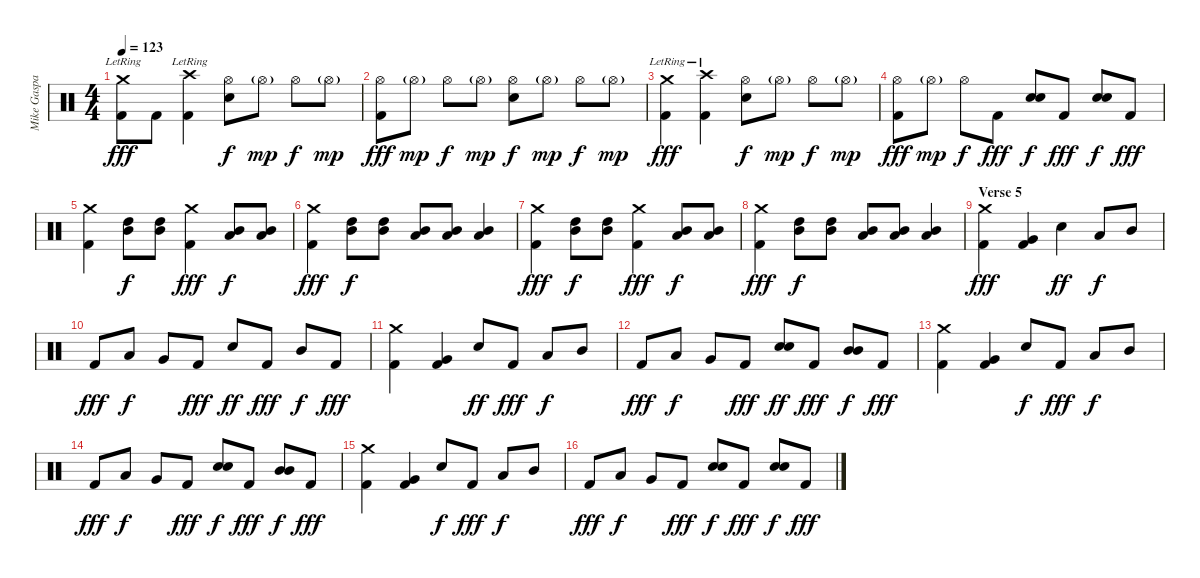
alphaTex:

\track ("Mike Gaspar (Drums)" "Mike Gaspa") {instrument percussion}
\staff {score}
\articulation defaults
\ts (4 4)
\tempo 123
\clef neutral
\ks c
("Crash medium (hit)"{lr} "Kick (hit) 2").8{dy fff} "Kick (hit) 2".8 ("Crash high (hit)"{lr} "Kick (hit) 2").4 ("Hi-Hat (open)" "Snare (hit) 2").8{dy f} "Hi-Hat (open)"{g}.8{dy mp} "Hi-Hat (open)".8{dy f} "Hi-Hat (open)"{g}.8{dy mp} |
("Hi-Hat (open)" "Kick (hit) 2").8{dy fff} "Hi-Hat (open)"{g}.8{dy mp} "Hi-Hat (open)".8{dy f} "Hi-Hat (open)"{g}.8{dy mp} ("Hi-Hat (open)" "Snare (hit) 2").8{dy f} "Hi-Hat (open)"{g}.8{dy mp} "Hi-Hat (open)".8{dy f} "Hi-Hat (open)"{g}.8{dy mp} |
("Crash medium (hit)"{lr} "Kick (hit) 2").4{dy fff} ("Crash high (hit)"{lr} "Kick (hit) 2").4 ("Hi-Hat (open)" "Snare (hit) 2").8{dy f} "Hi-Hat (open)"{g}.8{dy mp} "Hi-Hat (open)".8{dy f} "Hi-Hat (open)"{g}.8{dy mp} |
("Hi-Hat (open)" "Kick (hit) 2").8{dy fff} "Hi-Hat (open)"{g}.8{dy mp} "Hi-Hat (open)".8{dy f} "Kick (hit) 2".8{dy fff} ("Snare (hit) 2" "Snare (hit) 2").8{bd 30 dy f} "Kick (hit) 2".8{dy fff} ("Snare (hit) 2" "Snare (hit) 2").8{bd 30 dy f} "Kick (hit) 2".8{dy fff} |
("Crash medium (hit)" "Kick (hit) 2").4 ("High Tom (hit)" "Mid Tom (hit)").8{dy f} ("High Tom (hit)" "Mid Tom (hit)").8 ("Crash medium (hit)" "Kick (hit) 2").4{dy fff} ("Mid Tom (hit)" "Low Tom (hit)").8{dy f} ("Mid Tom (hit)" "Low Tom (hit)").8 |
("Crash medium (hit)" "Kick (hit) 2").4{dy fff} ("High Tom (hit)" "Mid Tom (hit)").8{dy f} ("High Tom (hit)" "Mid Tom (hit)").8 ("Mid Tom (hit)" "Low Tom (hit)").8 ("Mid Tom (hit)" "Low Tom (hit)").8 ("Mid Tom (hit)" "Low Tom (hit)").4 |
("Crash medium (hit)" "Kick (hit) 2").4{dy fff} ("High Tom (hit)" "Mid Tom (hit)").8{dy f} ("High Tom (hit)" "Mid Tom (hit)").8 ("Crash medium (hit)" "Kick (hit) 2").4{dy fff} ("Mid Tom (hit)" "Low Tom (hit)").8{dy f} ("Mid Tom (hit)" "Low Tom (hit)").8 |
("Crash medium (hit)" "Kick (hit) 2").4{dy fff} ("High Tom (hit)" "Mid Tom (hit)").8{dy f} ("High Tom (hit)" "Mid Tom (hit)").8 ("Mid Tom (hit)" "Low Tom (hit)").8 ("Mid Tom (hit)" "Low Tom (hit)").8 ("Mid Tom (hit)" "Low Tom (hit)").4 |
\section ("" "Verse 5")
("Crash medium (hit)" "Kick (hit) 2").4{dy fff} ("Very Low Tom (hit)" "Kick (hit) 2").4 "Snare (hit) 2".4{dy ff} "Low Tom (hit)".8{dy f} "Mid Tom (hit)".8 |
"Kick (hit) 2".8{dy fff} "Low Tom (hit)".8{dy f} "Very Low Tom (hit)".8 "Kick (hit) 2".8{dy fff} "Snare (hit) 2".8{dy ff} "Kick (hit) 2".8{dy fff} "Mid Tom (hit)".8{dy f} "Kick (hit) 2".8{dy fff} |
("Crash medium (hit)" "Kick (hit) 2").4 ("Very Low Tom (hit)" "Kick (hit) 2").4 "Snare (hit) 2".8{dy ff} "Kick (hit) 2".8{dy fff} "Low Tom (hit)".8{dy f} "Mid Tom (hit)".8 |
"Kick (hit) 2".8{dy fff} "Low Tom (hit)".8{dy f} "Very Low Tom (hit)".8 "Kick (hit) 2".8{dy fff} ("Snare (hit) 2" "Snare (hit) 2").8{bd 60 dy ff} "Kick (hit) 2".8{dy fff} ("Mid Tom (hit)" "Mid Tom (hit)").8{bd 60 dy f} "Kick (hit) 2".8{dy fff} |
("Crash medium (hit)" "Kick (hit) 2").4 ("Very Low Tom (hit)" "Kick (hit) 2").4 "Snare (hit) 2".8{dy f} "Kick (hit) 2".8{dy fff} "Low Tom (hit)".8{dy f} "Mid Tom (hit)".8 |
"Kick (hit) 2".8{dy fff} "Low Tom (hit)".8{dy f} "Very Low Tom (hit)".8 "Kick (hit) 2".8{dy fff} ("Snare (hit) 2" "Snare (hit) 2").8{bd 60 dy f} "Kick (hit) 2".8{dy fff} ("Mid Tom (hit)" "Mid Tom (hit)").8{bd 60 dy f} "Kick (hit) 2".8{dy fff} |
("Crash medium (hit)" "Kick (hit) 2").4 ("Very Low Tom (hit)" "Kick (hit) 2").4 "Snare (hit) 2".8{dy f} "Kick (hit) 2".8{dy fff} "Low Tom (hit)".8{dy f} "Mid Tom (hit)".8 |
"Kick (hit) 2".8{dy fff} "Low Tom (hit)".8{dy f} "Very Low Tom (hit)".8 "Kick (hit) 2".8{dy fff} ("Snare (hit) 2" "Snare (hit) 2").8{bd 30 dy f} "Kick (hit) 2".8{dy fff} ("Snare (hit) 2" "Snare (hit) 2").8{bd 60 dy f} "Kick (hit) 2".8{dy fff}
